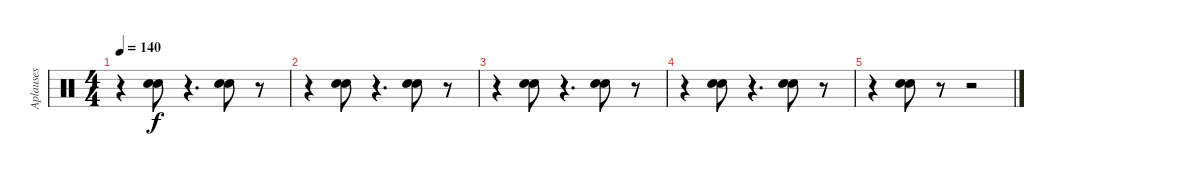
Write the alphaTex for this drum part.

\track ("Aplauses" "Aplauses") {instrument percussion}
\staff {score}
\articulation defaults
\ts (4 4)
\tempo 140
\clef neutral
\ks c
r.4{dy f} ("Hand Clap (hit)" "Hand Clap (hit)").8 r.4{d} ("Hand Clap (hit)" "Hand Clap (hit)").8 r.8 |
r.4 ("Hand Clap (hit)" "Hand Clap (hit)").8 r.4{d} ("Hand Clap (hit)" "Hand Clap (hit)").8 r.8 |
r.4 ("Hand Clap (hit)" "Hand Clap (hit)").8 r.4{d} ("Hand Clap (hit)" "Hand Clap (hit)").8 r.8 |
r.4 ("Hand Clap (hit)" "Hand Clap (hit)").8 r.4{d} ("Hand Clap (hit)" "Hand Clap (hit)").8 r.8 |
r.4 ("Hand Clap (hit)" "Hand Clap (hit)").8 r.8 r.2
